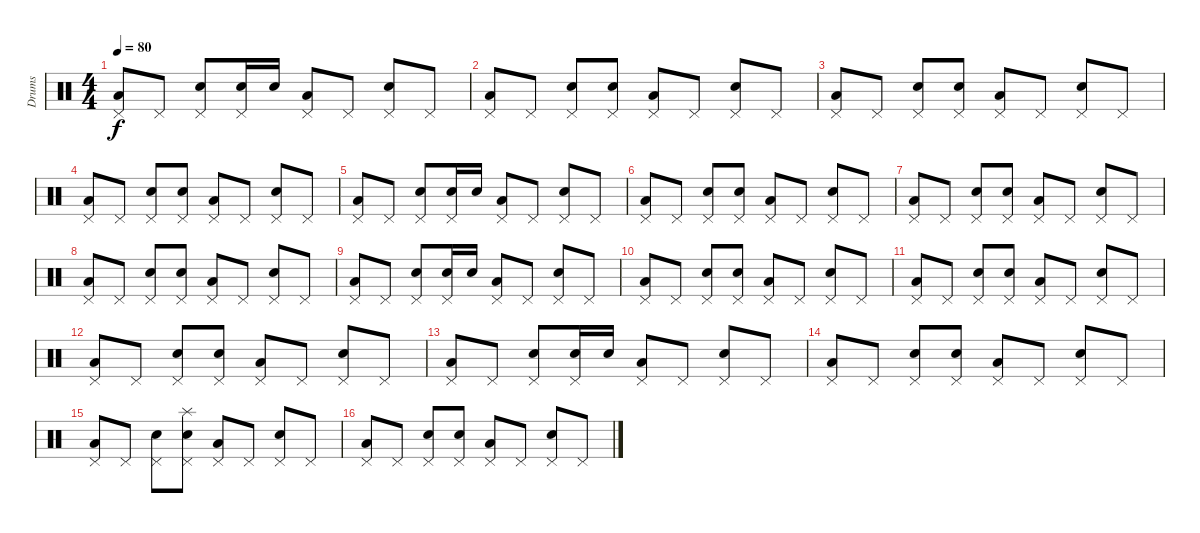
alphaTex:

\track ("Drums" "Drums") {instrument percussion}
\staff {score}
\articulation defaults
\ts (4 4)
\tempo 80
\clef neutral
\ks c
("Low Floor Tom (hit)" "Pedal Hi-Hat (hit)").8{dy f} "Pedal Hi-Hat (hit)".8 ("Electric Snare (hit)" "Pedal Hi-Hat (hit)").8 ("Electric Snare (hit)" "Pedal Hi-Hat (hit)").16 "Electric Snare (hit)".16 ("Low Floor Tom (hit)" "Pedal Hi-Hat (hit)").8 "Pedal Hi-Hat (hit)".8 ("Electric Snare (hit)" "Pedal Hi-Hat (hit)").8 "Pedal Hi-Hat (hit)".8 |
("Low Floor Tom (hit)" "Pedal Hi-Hat (hit)").8 "Pedal Hi-Hat (hit)".8 ("Electric Snare (hit)" "Pedal Hi-Hat (hit)").8 ("Electric Snare (hit)" "Pedal Hi-Hat (hit)").8 ("Low Floor Tom (hit)" "Pedal Hi-Hat (hit)").8 "Pedal Hi-Hat (hit)".8 ("Electric Snare (hit)" "Pedal Hi-Hat (hit)").8 "Pedal Hi-Hat (hit)".8 |
("Low Floor Tom (hit)" "Pedal Hi-Hat (hit)").8 "Pedal Hi-Hat (hit)".8 ("Electric Snare (hit)" "Pedal Hi-Hat (hit)").8 ("Electric Snare (hit)" "Pedal Hi-Hat (hit)").8 ("Low Floor Tom (hit)" "Pedal Hi-Hat (hit)").8 "Pedal Hi-Hat (hit)".8 ("Electric Snare (hit)" "Pedal Hi-Hat (hit)").8 "Pedal Hi-Hat (hit)".8 |
("Low Floor Tom (hit)" "Pedal Hi-Hat (hit)").8 "Pedal Hi-Hat (hit)".8 ("Electric Snare (hit)" "Pedal Hi-Hat (hit)").8 ("Electric Snare (hit)" "Pedal Hi-Hat (hit)").8 ("Low Floor Tom (hit)" "Pedal Hi-Hat (hit)").8 "Pedal Hi-Hat (hit)".8 ("Electric Snare (hit)" "Pedal Hi-Hat (hit)").8 "Pedal Hi-Hat (hit)".8 |
("Low Floor Tom (hit)" "Pedal Hi-Hat (hit)").8 "Pedal Hi-Hat (hit)".8 ("Electric Snare (hit)" "Pedal Hi-Hat (hit)").8 ("Electric Snare (hit)" "Pedal Hi-Hat (hit)").16 "Electric Snare (hit)".16 ("Low Floor Tom (hit)" "Pedal Hi-Hat (hit)").8 "Pedal Hi-Hat (hit)".8 ("Electric Snare (hit)" "Pedal Hi-Hat (hit)").8 "Pedal Hi-Hat (hit)".8 |
("Low Floor Tom (hit)" "Pedal Hi-Hat (hit)").8 "Pedal Hi-Hat (hit)".8 ("Electric Snare (hit)" "Pedal Hi-Hat (hit)").8 ("Electric Snare (hit)" "Pedal Hi-Hat (hit)").8 ("Low Floor Tom (hit)" "Pedal Hi-Hat (hit)").8 "Pedal Hi-Hat (hit)".8 ("Electric Snare (hit)" "Pedal Hi-Hat (hit)").8 "Pedal Hi-Hat (hit)".8 |
("Low Floor Tom (hit)" "Pedal Hi-Hat (hit)").8 "Pedal Hi-Hat (hit)".8 ("Electric Snare (hit)" "Pedal Hi-Hat (hit)").8 ("Electric Snare (hit)" "Pedal Hi-Hat (hit)").8 ("Low Floor Tom (hit)" "Pedal Hi-Hat (hit)").8 "Pedal Hi-Hat (hit)".8 ("Electric Snare (hit)" "Pedal Hi-Hat (hit)").8 "Pedal Hi-Hat (hit)".8 |
("Low Floor Tom (hit)" "Pedal Hi-Hat (hit)").8 "Pedal Hi-Hat (hit)".8 ("Electric Snare (hit)" "Pedal Hi-Hat (hit)").8 ("Electric Snare (hit)" "Pedal Hi-Hat (hit)").8 ("Low Floor Tom (hit)" "Pedal Hi-Hat (hit)").8 "Pedal Hi-Hat (hit)".8 ("Electric Snare (hit)" "Pedal Hi-Hat (hit)").8 "Pedal Hi-Hat (hit)".8 |
("Low Floor Tom (hit)" "Pedal Hi-Hat (hit)").8 "Pedal Hi-Hat (hit)".8 ("Electric Snare (hit)" "Pedal Hi-Hat (hit)").8 ("Electric Snare (hit)" "Pedal Hi-Hat (hit)").16 "Electric Snare (hit)".16 ("Low Floor Tom (hit)" "Pedal Hi-Hat (hit)").8 "Pedal Hi-Hat (hit)".8 ("Electric Snare (hit)" "Pedal Hi-Hat (hit)").8 "Pedal Hi-Hat (hit)".8 |
("Low Floor Tom (hit)" "Pedal Hi-Hat (hit)").8 "Pedal Hi-Hat (hit)".8 ("Electric Snare (hit)" "Pedal Hi-Hat (hit)").8 ("Electric Snare (hit)" "Pedal Hi-Hat (hit)").8 ("Low Floor Tom (hit)" "Pedal Hi-Hat (hit)").8 "Pedal Hi-Hat (hit)".8 ("Electric Snare (hit)" "Pedal Hi-Hat (hit)").8 "Pedal Hi-Hat (hit)".8 |
("Low Floor Tom (hit)" "Pedal Hi-Hat (hit)").8 "Pedal Hi-Hat (hit)".8 ("Electric Snare (hit)" "Pedal Hi-Hat (hit)").8 ("Electric Snare (hit)" "Pedal Hi-Hat (hit)").8 ("Low Floor Tom (hit)" "Pedal Hi-Hat (hit)").8 "Pedal Hi-Hat (hit)".8 ("Electric Snare (hit)" "Pedal Hi-Hat (hit)").8 "Pedal Hi-Hat (hit)".8 |
("Low Floor Tom (hit)" "Pedal Hi-Hat (hit)").8 "Pedal Hi-Hat (hit)".8 ("Electric Snare (hit)" "Pedal Hi-Hat (hit)").8 ("Electric Snare (hit)" "Pedal Hi-Hat (hit)").8 ("Low Floor Tom (hit)" "Pedal Hi-Hat (hit)").8 "Pedal Hi-Hat (hit)".8 ("Electric Snare (hit)" "Pedal Hi-Hat (hit)").8 "Pedal Hi-Hat (hit)".8 |
("Low Floor Tom (hit)" "Pedal Hi-Hat (hit)").8 "Pedal Hi-Hat (hit)".8 ("Electric Snare (hit)" "Pedal Hi-Hat (hit)").8 ("Electric Snare (hit)" "Pedal Hi-Hat (hit)").16 "Electric Snare (hit)".16 ("Low Floor Tom (hit)" "Pedal Hi-Hat (hit)").8 "Pedal Hi-Hat (hit)".8 ("Electric Snare (hit)" "Pedal Hi-Hat (hit)").8 "Pedal Hi-Hat (hit)".8 |
("Low Floor Tom (hit)" "Pedal Hi-Hat (hit)").8 "Pedal Hi-Hat (hit)".8 ("Electric Snare (hit)" "Pedal Hi-Hat (hit)").8 ("Electric Snare (hit)" "Pedal Hi-Hat (hit)").8 ("Low Floor Tom (hit)" "Pedal Hi-Hat (hit)").8 "Pedal Hi-Hat (hit)".8 ("Electric Snare (hit)" "Pedal Hi-Hat (hit)").8 "Pedal Hi-Hat (hit)".8 |
("Low Floor Tom (hit)" "Pedal Hi-Hat (hit)").8 "Pedal Hi-Hat (hit)".8 ("Electric Snare (hit)" "Pedal Hi-Hat (hit)").8 ("Electric Snare (hit)" "Pedal Hi-Hat (hit)" "Splash (hit)").8 ("Low Floor Tom (hit)" "Pedal Hi-Hat (hit)").8 "Pedal Hi-Hat (hit)".8 ("Electric Snare (hit)" "Pedal Hi-Hat (hit)").8 "Pedal Hi-Hat (hit)".8 |
("Low Floor Tom (hit)" "Pedal Hi-Hat (hit)").8 "Pedal Hi-Hat (hit)".8 ("Electric Snare (hit)" "Pedal Hi-Hat (hit)").8 ("Electric Snare (hit)" "Pedal Hi-Hat (hit)").8 ("Low Floor Tom (hit)" "Pedal Hi-Hat (hit)").8 "Pedal Hi-Hat (hit)".8 ("Electric Snare (hit)" "Pedal Hi-Hat (hit)").8 "Pedal Hi-Hat (hit)".8
